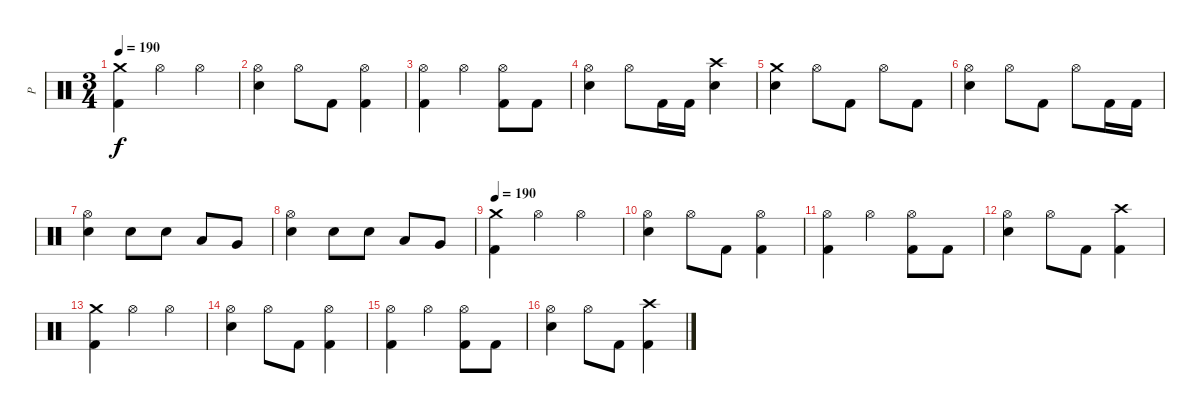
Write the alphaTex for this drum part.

\track ("P" "P") {instrument percussion}
\staff {score}
\articulation defaults
\ts (3 4)
\tempo 200
\tempo 190
\clef neutral
\ks c
("Crash medium (hit)" "Kick (hit) 2").4{dy f} "Hi-Hat (open)".4 "Hi-Hat (open)".4 |
("Hi-Hat (open)" "Electric Snare (hit)").4 "Hi-Hat (open)".8 "Kick (hit) 2".8 ("Hi-Hat (open)" "Kick (hit) 2").4 |
("Hi-Hat (open)" "Kick (hit) 2").4 "Hi-Hat (open)".4 ("Hi-Hat (open)" "Kick (hit) 2").8 "Kick (hit) 2".8 |
("Hi-Hat (open)" "Electric Snare (hit)").4 "Hi-Hat (open)".8 "Kick (hit) 2".16 "Kick (hit) 2".16 ("Crash high (hit)" "Electric Snare (hit)").4 |
("Crash medium (hit)" "Electric Snare (hit)").4 "Hi-Hat (open)".8 "Kick (hit) 2".8 "Hi-Hat (open)".8 "Kick (hit) 2".8 |
("Hi-Hat (open)" "Electric Snare (hit)").4 "Hi-Hat (open)".8 "Kick (hit) 2".8 "Hi-Hat (open)".8 "Kick (hit) 2".16 "Kick (hit) 2".16 |
("Hi-Hat (open)" "Electric Snare (hit)").4 "Electric Snare (hit)".8 "Electric Snare (hit)".8 "Low Tom (hit)".8 "Very Low Tom (hit)".8 |
("Hi-Hat (open)" "Electric Snare (hit)").4 "Electric Snare (hit)".8 "Electric Snare (hit)".8 "Low Tom (hit)".8 "Very Low Tom (hit)".8 |
\tempo 190
("Crash medium (hit)" "Kick (hit) 2").4 "Hi-Hat (open)".4 "Hi-Hat (open)".4 |
("Hi-Hat (open)" "Electric Snare (hit)").4 "Hi-Hat (open)".8 "Kick (hit) 2".8 ("Hi-Hat (open)" "Kick (hit) 2").4 |
("Hi-Hat (open)" "Kick (hit) 2").4 "Hi-Hat (open)".4 ("Hi-Hat (open)" "Kick (hit) 2").8 "Kick (hit) 2".8 |
("Hi-Hat (open)" "Electric Snare (hit)").4 "Hi-Hat (open)".8 "Kick (hit) 2".8 ("Crash high (hit)" "Kick (hit) 2").4 |
("Crash medium (hit)" "Kick (hit) 2").4 "Hi-Hat (open)".4 "Hi-Hat (open)".4 |
("Hi-Hat (open)" "Electric Snare (hit)").4 "Hi-Hat (open)".8 "Kick (hit) 2".8 ("Hi-Hat (open)" "Kick (hit) 2").4 |
("Hi-Hat (open)" "Kick (hit) 2").4 "Hi-Hat (open)".4 ("Hi-Hat (open)" "Kick (hit) 2").8 "Kick (hit) 2".8 |
("Hi-Hat (open)" "Electric Snare (hit)").4 "Hi-Hat (open)".8 "Kick (hit) 2".8 ("Crash high (hit)" "Kick (hit) 2").4
